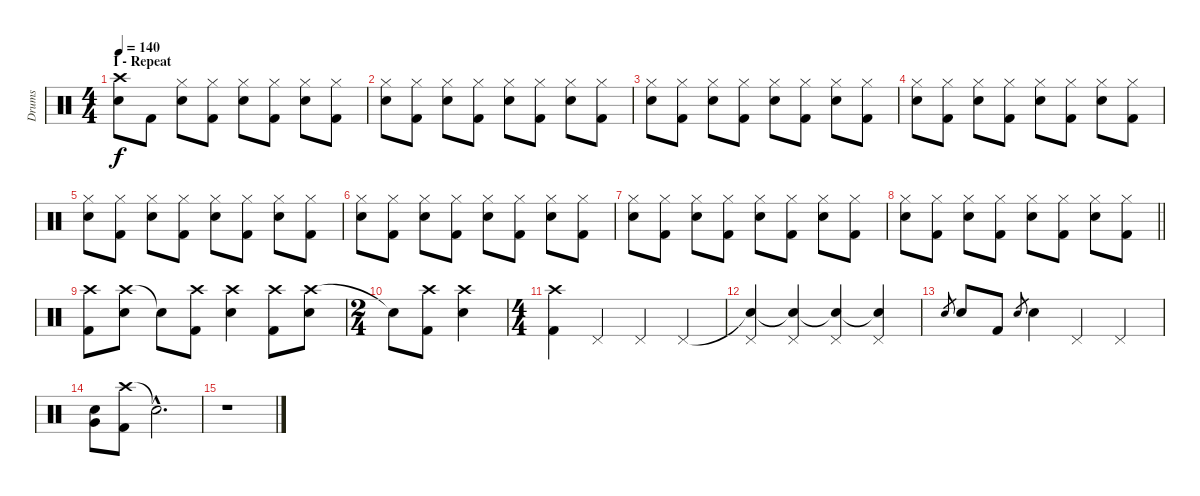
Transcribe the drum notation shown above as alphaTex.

\track ("Drums" "Drums") {instrument percussion}
\staff {score}
\articulation defaults
\ts (4 4)
\section ("" "I - Repeat")
\tempo 140
\clef neutral
\ks c
("Crash high (hit)" "Snare (hit) 2").8{dy f} "Kick (hit) 2".8 ("Hi-Hat (closed)" "Snare (hit) 2").8 ("Hi-Hat (closed)" "Kick (hit) 2").8 ("Hi-Hat (closed)" "Snare (hit) 2").8 ("Hi-Hat (closed)" "Kick (hit) 2").8 ("Hi-Hat (closed)" "Snare (hit) 2").8 ("Hi-Hat (closed)" "Kick (hit) 2").8 |
("Hi-Hat (closed)" "Snare (hit) 2").8 ("Hi-Hat (closed)" "Kick (hit) 2").8 ("Hi-Hat (closed)" "Snare (hit) 2").8 ("Hi-Hat (closed)" "Kick (hit) 2").8 ("Hi-Hat (closed)" "Snare (hit) 2").8 ("Hi-Hat (closed)" "Kick (hit) 2").8 ("Hi-Hat (closed)" "Snare (hit) 2").8 ("Hi-Hat (closed)" "Kick (hit) 2").8 |
("Hi-Hat (closed)" "Snare (hit) 2").8 ("Hi-Hat (closed)" "Kick (hit) 2").8 ("Hi-Hat (closed)" "Snare (hit) 2").8 ("Hi-Hat (closed)" "Kick (hit) 2").8 ("Hi-Hat (closed)" "Snare (hit) 2").8 ("Hi-Hat (closed)" "Kick (hit) 2").8 ("Hi-Hat (closed)" "Snare (hit) 2").8 ("Hi-Hat (closed)" "Kick (hit) 2").8 |
("Hi-Hat (closed)" "Snare (hit) 2").8 ("Hi-Hat (closed)" "Kick (hit) 2").8 ("Hi-Hat (closed)" "Snare (hit) 2").8 ("Hi-Hat (closed)" "Kick (hit) 2").8 ("Hi-Hat (closed)" "Snare (hit) 2").8 ("Hi-Hat (closed)" "Kick (hit) 2").8 ("Hi-Hat (closed)" "Snare (hit) 2").8 ("Hi-Hat (closed)" "Kick (hit) 2").8 |
("Hi-Hat (closed)" "Snare (hit) 2").8 ("Hi-Hat (closed)" "Kick (hit) 2").8 ("Hi-Hat (closed)" "Snare (hit) 2").8 ("Hi-Hat (closed)" "Kick (hit) 2").8 ("Hi-Hat (closed)" "Snare (hit) 2").8 ("Hi-Hat (closed)" "Kick (hit) 2").8 ("Hi-Hat (closed)" "Snare (hit) 2").8 ("Hi-Hat (closed)" "Kick (hit) 2").8 |
("Hi-Hat (closed)" "Snare (hit) 2").8 ("Hi-Hat (closed)" "Kick (hit) 2").8 ("Hi-Hat (closed)" "Snare (hit) 2").8 ("Hi-Hat (closed)" "Kick (hit) 2").8 ("Hi-Hat (closed)" "Snare (hit) 2").8 ("Hi-Hat (closed)" "Kick (hit) 2").8 ("Hi-Hat (closed)" "Snare (hit) 2").8 ("Hi-Hat (closed)" "Kick (hit) 2").8 |
("Hi-Hat (closed)" "Snare (hit) 2").8 ("Hi-Hat (closed)" "Kick (hit) 2").8 ("Hi-Hat (closed)" "Snare (hit) 2").8 ("Hi-Hat (closed)" "Kick (hit) 2").8 ("Hi-Hat (closed)" "Snare (hit) 2").8 ("Hi-Hat (closed)" "Kick (hit) 2").8 ("Hi-Hat (closed)" "Snare (hit) 2").8 ("Hi-Hat (closed)" "Kick (hit) 2").8 |
\barLineRight lightlight
("Hi-Hat (closed)" "Snare (hit) 2").8 ("Hi-Hat (closed)" "Kick (hit) 2").8 ("Hi-Hat (closed)" "Snare (hit) 2").8 ("Hi-Hat (closed)" "Kick (hit) 2").8 ("Hi-Hat (closed)" "Snare (hit) 2").8 ("Hi-Hat (closed)" "Kick (hit) 2").8 ("Hi-Hat (closed)" "Snare (hit) 2").8 ("Hi-Hat (closed)" "Kick (hit) 2").8 |
("Crash high (hit)" "Kick (hit) 2").8 ("Crash high (hit)" "Snare (hit) 2").8 "Snare (hit)"{t}.8 ("Crash high (hit)" "Kick (hit) 2").8 ("Crash high (hit)" "Snare (hit) 2").4 ("Crash high (hit)" "Kick (hit) 2").8 ("Crash high (hit)" "Snare (hit) 2").8 |
\ts (2 4)
"Snare (hit)"{t}.8 ("Crash high (hit)" "Kick (hit) 2").8 ("Crash high (hit)" "Snare (hit) 2").4 |
\ts (4 4)
("Crash high (hit)" "Kick (hit) 2").4 "Pedal Hi-Hat (hit)".4 "Pedal Hi-Hat (hit)".4 "Pedal Hi-Hat (hit)".4 |
("Snare (hit)"{t} "Pedal Hi-Hat (hit)").4 ("Snare (hit)"{t} "Pedal Hi-Hat (hit)").4 ("Snare (hit)"{t} "Pedal Hi-Hat (hit)").4 ("Snare (hit)"{t} "Pedal Hi-Hat (hit)").4 |
"Snare (hit) 2".8{gr} "Snare (hit) 2".8 "Kick (hit) 2".8 "Snare (hit) 2".8{gr} "Snare (hit) 2".4 "Pedal Hi-Hat (hit)".4 "Pedal Hi-Hat (hit)".4 |
("Snare (hit) 2" "Very Low Tom (hit)").8 ("Crash high (hit)" "Kick (hit) 2").8 "Snare (hit)"{hac t}.2{d} |
r.1
